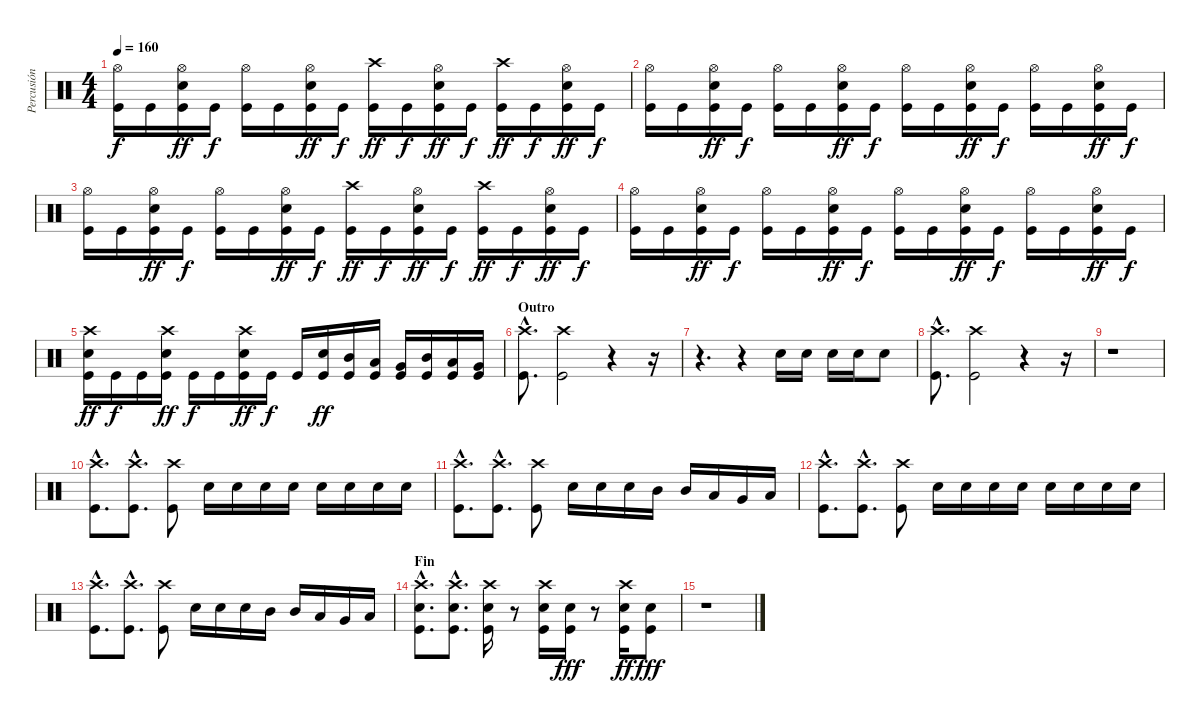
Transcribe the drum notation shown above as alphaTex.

\track ("Percusión" "Percusión") {instrument percussion}
\staff {score}
\articulation defaults
\ts (4 4)
\tempo 160
\clef neutral
\ks c
("Kick (hit)" "Hi-Hat (open)").16{dy f} "Kick (hit)".16 ("Kick (hit)" "Electric Snare (hit)" "Hi-Hat (open)").16{dy ff} "Kick (hit)".16{dy f} ("Kick (hit)" "Hi-Hat (open)").16 "Kick (hit)".16 ("Kick (hit)" "Electric Snare (hit)" "Hi-Hat (open)").16{dy ff} "Kick (hit)".16{dy f} ("Kick (hit)" "Crash high (hit)").16{dy ff} "Kick (hit)".16{dy f} ("Kick (hit)" "Electric Snare (hit)" "Hi-Hat (open)").16{dy ff} "Kick (hit)".16{dy f} ("Kick (hit)" "Crash high (hit)").16{dy ff} "Kick (hit)".16{dy f} ("Kick (hit)" "Electric Snare (hit)" "Hi-Hat (open)").16{dy ff} "Kick (hit)".16{dy f} |
("Kick (hit)" "Hi-Hat (open)").16 "Kick (hit)".16 ("Kick (hit)" "Electric Snare (hit)" "Hi-Hat (open)").16{dy ff} "Kick (hit)".16{dy f} ("Kick (hit)" "Hi-Hat (open)").16 "Kick (hit)".16 ("Kick (hit)" "Electric Snare (hit)" "Hi-Hat (open)").16{dy ff} "Kick (hit)".16{dy f} ("Kick (hit)" "Hi-Hat (open)").16 "Kick (hit)".16 ("Kick (hit)" "Electric Snare (hit)" "Hi-Hat (open)").16{dy ff} "Kick (hit)".16{dy f} ("Kick (hit)" "Hi-Hat (open)").16 "Kick (hit)".16 ("Kick (hit)" "Electric Snare (hit)" "Hi-Hat (open)").16{dy ff} "Kick (hit)".16{dy f} |
("Kick (hit)" "Hi-Hat (open)").16 "Kick (hit)".16 ("Kick (hit)" "Electric Snare (hit)" "Hi-Hat (open)").16{dy ff} "Kick (hit)".16{dy f} ("Kick (hit)" "Hi-Hat (open)").16 "Kick (hit)".16 ("Kick (hit)" "Electric Snare (hit)" "Hi-Hat (open)").16{dy ff} "Kick (hit)".16{dy f} ("Kick (hit)" "Crash high (hit)").16{dy ff} "Kick (hit)".16{dy f} ("Kick (hit)" "Electric Snare (hit)" "Hi-Hat (open)").16{dy ff} "Kick (hit)".16{dy f} ("Kick (hit)" "Crash high (hit)").16{dy ff} "Kick (hit)".16{dy f} ("Kick (hit)" "Electric Snare (hit)" "Hi-Hat (open)").16{dy ff} "Kick (hit)".16{dy f} |
("Kick (hit)" "Hi-Hat (open)").16 "Kick (hit)".16 ("Kick (hit)" "Electric Snare (hit)" "Hi-Hat (open)").16{dy ff} "Kick (hit)".16{dy f} ("Kick (hit)" "Hi-Hat (open)").16 "Kick (hit)".16 ("Kick (hit)" "Electric Snare (hit)" "Hi-Hat (open)").16{dy ff} "Kick (hit)".16{dy f} ("Kick (hit)" "Hi-Hat (open)").16 "Kick (hit)".16 ("Kick (hit)" "Electric Snare (hit)" "Hi-Hat (open)").16{dy ff} "Kick (hit)".16{dy f} ("Kick (hit)" "Hi-Hat (open)").16 "Kick (hit)".16 ("Kick (hit)" "Electric Snare (hit)" "Hi-Hat (open)").16{dy ff} "Kick (hit)".16{dy f} |
("Kick (hit)" "Electric Snare (hit)" "Crash high (hit)").16{dy ff} "Kick (hit)".16{dy f} "Kick (hit)".16 ("Kick (hit)" "Electric Snare (hit)" "Crash high (hit)").16{dy ff} "Kick (hit)".16{dy f} "Kick (hit)".16 ("Kick (hit)" "Electric Snare (hit)" "Crash high (hit)").16{dy ff} "Kick (hit)".16{dy f} "Kick (hit)".16 ("Kick (hit)" "Electric Snare (hit)").16{dy ff} ("Kick (hit)" "Mid Tom (hit)").16 ("Kick (hit)" "Low Tom (hit)").16 ("Kick (hit)" "Very Low Tom (hit)").16 ("Kick (hit)" "Mid Tom (hit)").16 ("Kick (hit)" "Low Tom (hit)").16 ("Kick (hit)" "Very Low Tom (hit)").16 |
\section ("" "Outro")
("Kick (hit)"{hac} "Crash high (hit)"{hac}).8{d} ("Kick (hit)" "Crash high (hit)").2 r.4 r.16 |
r.4{d} r.4 "Electric Snare (hit)".16 "Electric Snare (hit)".16 "Electric Snare (hit)".16 "Electric Snare (hit)".16 "Electric Snare (hit)".8 |
("Kick (hit)"{hac} "Crash high (hit)"{hac}).8{d} ("Kick (hit)" "Crash high (hit)").2 r.4 r.16 |
r.1 |
("Kick (hit)"{hac} "Crash high (hit)"{hac}).8{d} ("Kick (hit)"{hac} "Crash high (hit)"{hac}).8{d} ("Kick (hit)" "Crash high (hit)").8 "Electric Snare (hit)".16 "Electric Snare (hit)".16 "Electric Snare (hit)".16 "Electric Snare (hit)".16 "Electric Snare (hit)".16 "Electric Snare (hit)".16 "Electric Snare (hit)".16 "Electric Snare (hit)".16 |
("Kick (hit)"{hac} "Crash high (hit)"{hac}).8{d} ("Kick (hit)"{hac} "Crash high (hit)"{hac}).8{d} ("Kick (hit)" "Crash high (hit)").8 "Electric Snare (hit)".16 "Electric Snare (hit)".16 "Electric Snare (hit)".16 "Mid Tom (hit)".16 "Mid Tom (hit)".16 "Low Tom (hit)".16 "Very Low Tom (hit)".16 "Low Floor Tom (hit)".16 |
("Kick (hit)"{hac} "Crash high (hit)"{hac}).8{d} ("Kick (hit)"{hac} "Crash high (hit)"{hac}).8{d} ("Kick (hit)" "Crash high (hit)").8 "Electric Snare (hit)".16 "Electric Snare (hit)".16 "Electric Snare (hit)".16 "Electric Snare (hit)".16 "Electric Snare (hit)".16 "Electric Snare (hit)".16 "Electric Snare (hit)".16 "Electric Snare (hit)".16 |
("Kick (hit)"{hac} "Crash high (hit)"{hac}).8{d} ("Kick (hit)"{hac} "Crash high (hit)"{hac}).8{d} ("Kick (hit)" "Crash high (hit)").8 "Electric Snare (hit)".16 "Electric Snare (hit)".16 "Electric Snare (hit)".16 "Mid Tom (hit)".16 "Mid Tom (hit)".16 "Low Tom (hit)".16 "Very Low Tom (hit)".16 "Low Floor Tom (hit)".16 |
\section ("" "Fin")
("Electric Snare (hit)"{hac} "Kick (hit)"{hac} "Crash high (hit)"{hac}).8{d} ("Electric Snare (hit)"{hac} "Kick (hit)"{hac} "Crash high (hit)"{hac}).8{d} ("Electric Snare (hit)" "Kick (hit)" "Crash high (hit)").16 r.8 ("Electric Snare (hit)" "Kick (hit)" "Crash high (hit)").16 ("Electric Snare (hit)" "Kick (hit)").16{dy fff} r.8 ("Electric Snare (hit)" "Kick (hit)" "Crash high (hit)").16{dy ff} ("Electric Snare (hit)" "Kick (hit)").8{dy fff} |
r.1
